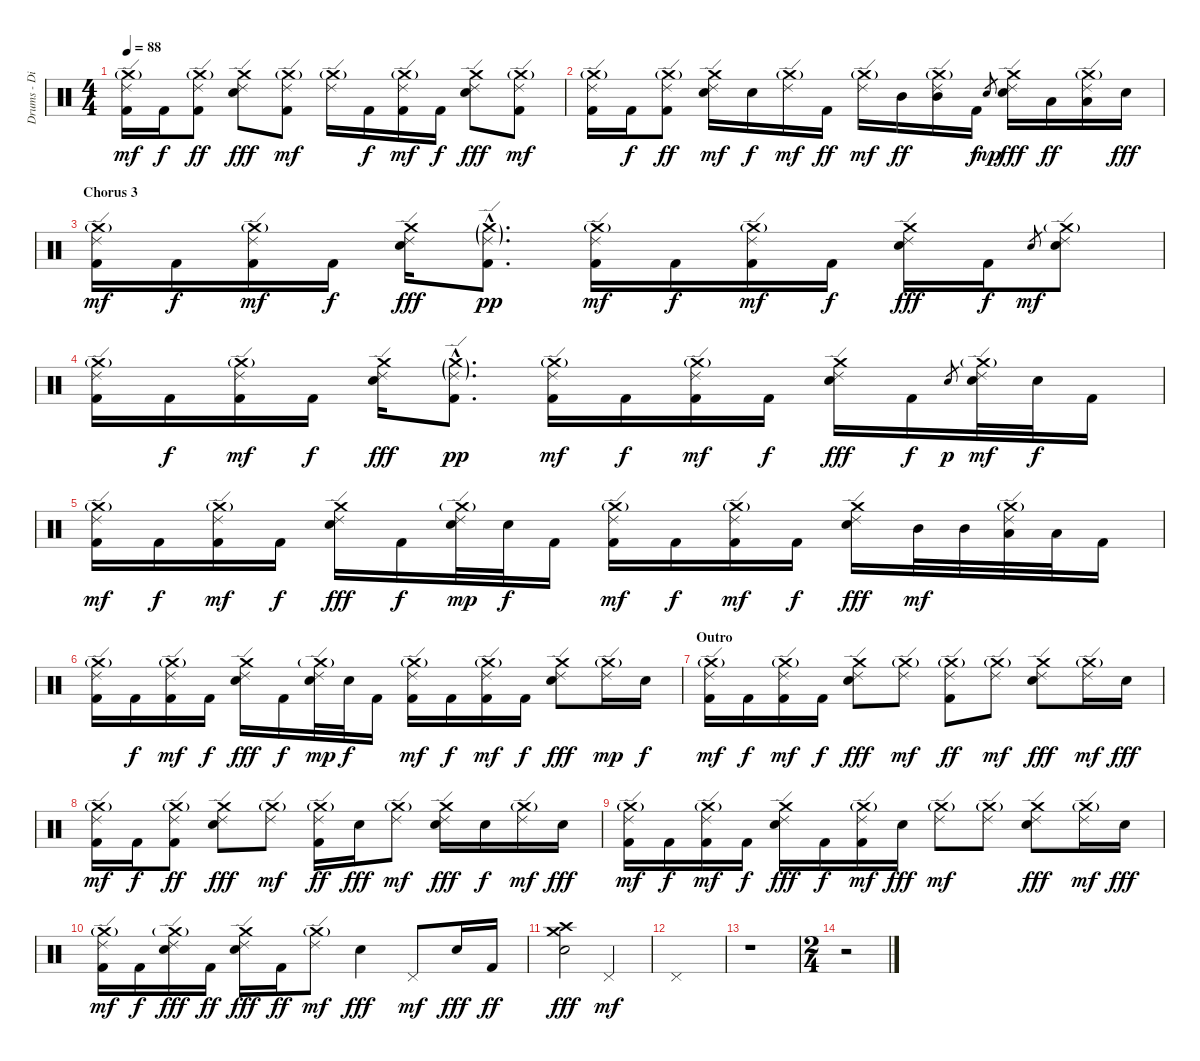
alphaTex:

\track ("Drums - Dino Campanella" "Drums - Di") {instrument percussion}
\staff {score}
\articulation defaults
\ts (4 4)
\tempo 88
\clef neutral
\ks c
("Crash medium (hit)"{g} "Ride (edge) 2" "Kick (hit) 2").16{dy mf} "Kick (hit) 2".16{dy f} ("Crash medium (hit)"{g} "Ride (edge) 2" "Kick (hit) 2").8{dy ff} ("Crash medium (hit)" "Ride (edge) 2" "Electric Snare (hit)").8{dy fff} ("Crash medium (hit)"{g} "Ride (edge) 2" "Kick (hit) 2").8{dy mf} ("Crash medium (hit)"{g} "Ride (edge) 2").16 "Kick (hit) 2".16{dy f} ("Crash medium (hit)"{g} "Ride (edge) 2" "Kick (hit) 2").16{dy mf} "Kick (hit) 2".16{dy f} ("Crash medium (hit)" "Ride (edge) 2" "Electric Snare (hit)").8{dy fff} ("Crash medium (hit)"{g} "Ride (edge) 2" "Kick (hit) 2").8{dy mf} |
("Crash medium (hit)"{g} "Ride (edge) 2" "Kick (hit) 2").16 "Kick (hit) 2".16{dy f} ("Crash medium (hit)"{g} "Ride (edge) 2" "Kick (hit) 2").8{dy ff} ("Crash medium (hit)" "Ride (edge) 2" "Electric Snare (hit)").16{dy mf} "Electric Snare (hit)".16{dy f} ("Crash medium (hit)"{g} "Ride (edge) 2").16{dy mf} "Kick (hit) 2".16{dy ff} ("Crash medium (hit)"{g} "Ride (edge) 2").16{dy mf} "Mid Tom (hit)".16{dy ff} ("Crash medium (hit)"{g} "Ride (edge) 2" "Mid Tom (hit)").16 "Kick (hit) 2".16{dy f} "Electric Snare (hit)".8{gr dy mp} ("Crash medium (hit)" "Ride (edge) 2" "Electric Snare (hit)").16{dy fff} "Low Tom (hit)".16{dy ff} ("Crash medium (hit)"{g} "Ride (edge) 2" "Low Tom (hit)").16 "Electric Snare (hit)".16{dy fff} |
\section ("" "Chorus 3")
("Crash medium (hit)"{g} "Ride (edge) 2" "Kick (hit) 2").16{dy mf} "Kick (hit) 2".16{dy f} ("Crash medium (hit)"{g} "Ride (edge) 2" "Kick (hit) 2").16{dy mf} "Kick (hit) 2".16{dy f} ("Crash medium (hit)" "Ride (edge) 2" "Electric Snare (hit)").16{dy fff} ("Crash medium (hit)"{g hac} "Ride (edge) 2"{g hac} "Kick (hit) 2"{hac}).8{d dy pp} ("Crash medium (hit)"{g} "Ride (edge) 2" "Kick (hit) 2").16{dy mf} "Kick (hit) 2".16{dy f} ("Crash medium (hit)"{g} "Ride (edge) 2" "Kick (hit) 2").16{dy mf} "Kick (hit) 2".16{dy f} ("Crash medium (hit)" "Ride (edge) 2" "Electric Snare (hit)").16{dy fff} "Kick (hit) 2".16{dy f} "Electric Snare (hit)".8{gr dy mf} ("Crash medium (hit)"{g} "Ride (edge) 2" "Electric Snare (hit)").8 |
("Crash medium (hit)"{g} "Ride (edge) 2" "Kick (hit) 2").16 "Kick (hit) 2".16{dy f} ("Crash medium (hit)"{g} "Ride (edge) 2" "Kick (hit) 2").16{dy mf} "Kick (hit) 2".16{dy f} ("Crash medium (hit)" "Ride (edge) 2" "Electric Snare (hit)").16{dy fff} ("Crash medium (hit)"{g hac} "Ride (edge) 2"{g hac} "Kick (hit) 2"{hac}).8{d dy pp} ("Crash medium (hit)"{g} "Ride (edge) 2" "Kick (hit) 2").16{dy mf} "Kick (hit) 2".16{dy f} ("Crash medium (hit)"{g} "Ride (edge) 2" "Kick (hit) 2").16{dy mf} "Kick (hit) 2".16{dy f} ("Crash medium (hit)" "Ride (edge) 2" "Electric Snare (hit)").16{dy fff} "Kick (hit) 2".16{dy f} "Electric Snare (hit)".8{gr dy p} ("Crash medium (hit)"{g} "Ride (edge) 2" "Electric Snare (hit)").32{dy mf} "Electric Snare (hit)".32{dy f} "Kick (hit) 2".16 |
("Crash medium (hit)"{g} "Ride (edge) 2" "Kick (hit) 2").16{dy mf} "Kick (hit) 2".16{dy f} ("Crash medium (hit)"{g} "Ride (edge) 2" "Kick (hit) 2").16{dy mf} "Kick (hit) 2".16{dy f} ("Crash medium (hit)" "Ride (edge) 2" "Electric Snare (hit)").16{dy fff} "Kick (hit) 2".16{dy f} ("Crash medium (hit)"{g} "Ride (edge) 2" "Electric Snare (hit)").32{dy mp} "Electric Snare (hit)".32{dy f} "Kick (hit) 2".16 ("Crash medium (hit)"{g} "Ride (edge) 2" "Kick (hit) 2").16{dy mf} "Kick (hit) 2".16{dy f} ("Crash medium (hit)"{g} "Ride (edge) 2" "Kick (hit) 2").16{dy mf} "Kick (hit) 2".16{dy f} ("Crash medium (hit)" "Ride (edge) 2" "Electric Snare (hit)").16{dy fff} "Mid Tom (hit)".32{dy mf} "Mid Tom (hit)".32 ("Crash medium (hit)"{g} "Ride (edge) 2" "Low Tom (hit)").32 "Low Tom (hit)".32 "Kick (hit) 2".16 |
("Crash medium (hit)"{g} "Ride (edge) 2" "Kick (hit) 2").16 "Kick (hit) 2".16{dy f} ("Crash medium (hit)"{g} "Ride (edge) 2" "Kick (hit) 2").16{dy mf} "Kick (hit) 2".16{dy f} ("Crash medium (hit)" "Ride (edge) 2" "Electric Snare (hit)").16{dy fff} "Kick (hit) 2".16{dy f} ("Crash medium (hit)"{g} "Ride (edge) 2" "Electric Snare (hit)").32{dy mp} "Electric Snare (hit)".32{dy f} "Kick (hit) 2".16 ("Crash medium (hit)"{g} "Ride (edge) 2" "Kick (hit) 2").16{dy mf} "Kick (hit) 2".16{dy f} ("Crash medium (hit)"{g} "Ride (edge) 2" "Kick (hit) 2").16{dy mf} "Kick (hit) 2".16{dy f} ("Crash medium (hit)" "Ride (edge) 2" "Electric Snare (hit)").8{dy fff} ("Crash medium (hit)"{g} "Ride (edge) 2").16{dy mp} "Electric Snare (hit)".16{dy f} |
\section ("" "Outro")
("Crash medium (hit)"{g} "Ride (edge) 2" "Kick (hit) 2").16{dy mf} "Kick (hit) 2".16{dy f} ("Crash medium (hit)"{g} "Ride (edge) 2" "Kick (hit) 2").16{dy mf} "Kick (hit) 2".16{dy f} ("Crash medium (hit)" "Ride (edge) 2" "Electric Snare (hit)").8{dy fff} ("Crash medium (hit)"{g} "Ride (edge) 2").8{dy mf} ("Crash medium (hit)"{g} "Ride (edge) 2" "Kick (hit) 2").8{dy ff} ("Crash medium (hit)"{g} "Ride (edge) 2").8{dy mf} ("Crash medium (hit)" "Ride (edge) 2" "Electric Snare (hit)").8{dy fff} ("Crash medium (hit)"{g} "Ride (edge) 2").16{dy mf} "Electric Snare (hit)".16{dy fff} |
("Crash medium (hit)"{g} "Ride (edge) 2" "Kick (hit) 2").16{dy mf} "Kick (hit) 2".16{dy f} ("Crash medium (hit)"{g} "Ride (edge) 2" "Kick (hit) 2").8{dy ff} ("Crash medium (hit)" "Ride (edge) 2" "Electric Snare (hit)").8{dy fff} ("Crash medium (hit)"{g} "Ride (edge) 2").8{dy mf} ("Crash medium (hit)"{g} "Ride (edge) 2" "Kick (hit) 2").16{dy ff} "Electric Snare (hit)".16{dy fff} ("Crash medium (hit)"{g} "Ride (edge) 2").8{dy mf} ("Crash medium (hit)" "Ride (edge) 2" "Electric Snare (hit)").16{dy fff} "Electric Snare (hit)".16{dy f} ("Crash medium (hit)"{g} "Ride (edge) 2").16{dy mf} "Electric Snare (hit)".16{dy fff} |
("Crash medium (hit)"{g} "Ride (edge) 2" "Kick (hit) 2").16{dy mf} "Kick (hit) 2".16{dy f} ("Crash medium (hit)"{g} "Ride (edge) 2" "Kick (hit) 2").16{dy mf} "Kick (hit) 2".16{dy f} ("Crash medium (hit)" "Ride (edge) 2" "Electric Snare (hit)").16{dy fff} "Kick (hit) 2".16{dy f} ("Crash medium (hit)"{g} "Ride (edge) 2" "Kick (hit) 2").16{dy mf} "Electric Snare (hit)".16{dy fff} ("Crash medium (hit)"{g} "Ride (edge) 2").8{dy mf} ("Crash medium (hit)"{g} "Ride (edge) 2").8 ("Crash medium (hit)" "Ride (edge) 2" "Electric Snare (hit)").8{dy fff} ("Crash medium (hit)"{g} "Ride (edge) 2").16{dy mf} "Electric Snare (hit)".16{dy fff} |
("Crash medium (hit)"{g} "Ride (edge) 2" "Kick (hit) 2").16{dy mf} "Kick (hit) 2".16{dy f} ("Crash medium (hit)"{g} "Ride (edge) 2" "Electric Snare (hit)").16{dy fff} "Kick (hit) 2".16{dy ff} ("Crash medium (hit)" "Ride (edge) 2" "Electric Snare (hit)").16{dy fff} "Kick (hit) 2".16{dy ff} ("Crash medium (hit)"{g} "Ride (edge) 2").8{dy mf} "Electric Snare (hit)".4{dy fff} "Pedal Hi-Hat (hit)".8{dy mf} "Electric Snare (hit)".16{dy fff} "Kick (hit) 2".16{dy ff} |
("Crash high (hit)" "Crash medium (hit)" "Electric Snare (hit)").2{dy fff} "Pedal Hi-Hat (hit)".2{dy mf} |
"Pedal Hi-Hat (hit)".1 |
r.1 |
\ts (2 4)
r.2
